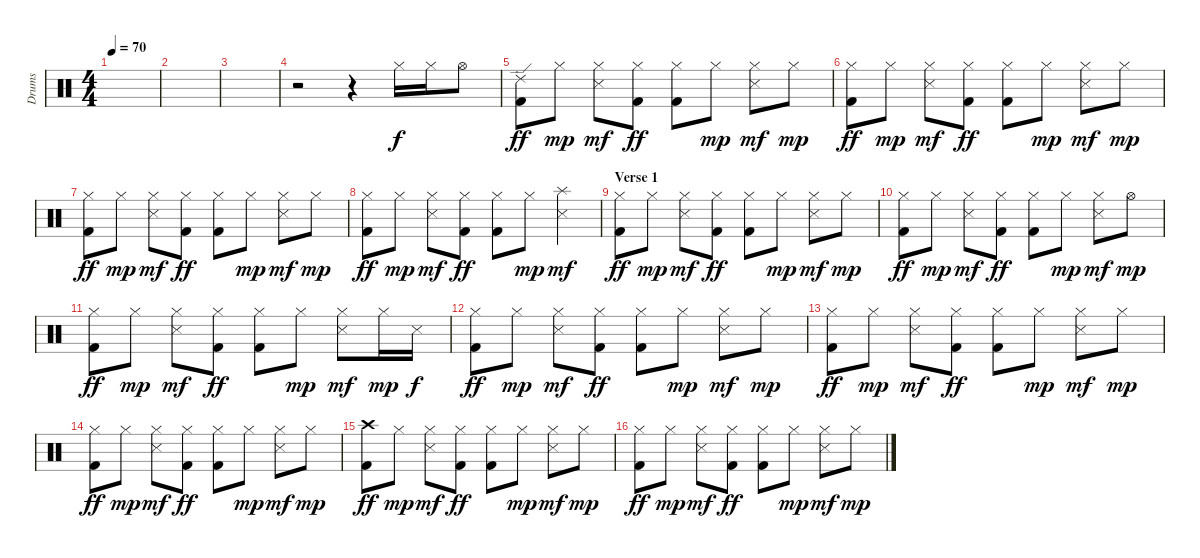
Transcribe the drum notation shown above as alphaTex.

\track ("Drums" "Drums") {instrument percussion}
\staff {score}
\articulation defaults
\ts (4 4)
\tempo 70
\clef neutral
\ks c
|
|
|
r.2 r.4 "Hi-Hat (closed)".16 "Hi-Hat (closed)".16 "Hi-Hat (open)".8 |
("Ride (edge) 2" "Kick (hit) 2").8{dy ff} "Hi-Hat (closed)".8{dy mp} ("Hi-Hat (closed)" "Snare (side stick) 3").8{dy mf} ("Hi-Hat (closed)" "Kick (hit) 2").8{dy ff} ("Hi-Hat (closed)" "Kick (hit) 2").8 "Hi-Hat (closed)".8{dy mp} ("Hi-Hat (closed)" "Snare (side stick) 3").8{dy mf} "Hi-Hat (closed)".8{dy mp} |
("Hi-Hat (closed)" "Kick (hit) 2").8{dy ff} "Hi-Hat (closed)".8{dy mp} ("Hi-Hat (closed)" "Snare (side stick) 3").8{dy mf} ("Hi-Hat (closed)" "Kick (hit) 2").8{dy ff} ("Hi-Hat (closed)" "Kick (hit) 2").8 "Hi-Hat (closed)".8{dy mp} ("Hi-Hat (closed)" "Snare (side stick) 3").8{dy mf} "Hi-Hat (closed)".8{dy mp} |
("Hi-Hat (closed)" "Kick (hit) 2").8{dy ff} "Hi-Hat (closed)".8{dy mp} ("Hi-Hat (closed)" "Snare (side stick) 3").8{dy mf} ("Hi-Hat (closed)" "Kick (hit) 2").8{dy ff} ("Hi-Hat (closed)" "Kick (hit) 2").8 "Hi-Hat (closed)".8{dy mp} ("Hi-Hat (closed)" "Snare (side stick) 3").8{dy mf} "Hi-Hat (closed)".8{dy mp} |
("Hi-Hat (closed)" "Kick (hit) 2").8{dy ff} "Hi-Hat (closed)".8{dy mp} ("Hi-Hat (closed)" "Snare (side stick) 3").8{dy mf} ("Hi-Hat (closed)" "Kick (hit) 2").8{dy ff} ("Hi-Hat (closed)" "Kick (hit) 2").8 "Hi-Hat (closed)".8{dy mp} ("Splash (hit)" "Snare (side stick) 3").4{dy mf} |
\section ("" "Verse 1")
("Hi-Hat (closed)" "Kick (hit) 2").8{dy ff} "Hi-Hat (closed)".8{dy mp} ("Hi-Hat (closed)" "Snare (side stick) 3").8{dy mf} ("Hi-Hat (closed)" "Kick (hit) 2").8{dy ff} ("Hi-Hat (closed)" "Kick (hit) 2").8 "Hi-Hat (closed)".8{dy mp} ("Hi-Hat (closed)" "Snare (side stick) 3").8{dy mf} "Hi-Hat (closed)".8{dy mp} |
("Hi-Hat (closed)" "Kick (hit) 2").8{dy ff} "Hi-Hat (closed)".8{dy mp} ("Hi-Hat (closed)" "Snare (side stick) 3").8{dy mf} ("Hi-Hat (closed)" "Kick (hit) 2").8{dy ff} ("Hi-Hat (closed)" "Kick (hit) 2").8 "Hi-Hat (closed)".8{dy mp} ("Hi-Hat (closed)" "Snare (side stick) 3").8{dy mf} "Hi-Hat (open)".8{dy mp} |
("Hi-Hat (closed)" "Kick (hit) 2").8{dy ff} "Hi-Hat (closed)".8{dy mp} ("Hi-Hat (closed)" "Snare (side stick) 3").8{dy mf} ("Hi-Hat (closed)" "Kick (hit) 2").8{dy ff} ("Hi-Hat (closed)" "Kick (hit) 2").8 "Hi-Hat (closed)".8{dy mp} ("Hi-Hat (closed)" "Snare (side stick) 3").8{dy mf} "Hi-Hat (closed)".16{dy mp} "Snare (side stick) 3".16{dy f} |
("Hi-Hat (closed)" "Kick (hit) 2").8{dy ff} "Hi-Hat (closed)".8{dy mp} ("Hi-Hat (closed)" "Snare (side stick) 3").8{dy mf} ("Hi-Hat (closed)" "Kick (hit) 2").8{dy ff} ("Hi-Hat (closed)" "Kick (hit) 2").8 "Hi-Hat (closed)".8{dy mp} ("Hi-Hat (closed)" "Snare (side stick) 3").8{dy mf} "Hi-Hat (closed)".8{dy mp} |
("Hi-Hat (closed)" "Kick (hit) 2").8{dy ff} "Hi-Hat (closed)".8{dy mp} ("Hi-Hat (closed)" "Snare (side stick) 3").8{dy mf} ("Hi-Hat (closed)" "Kick (hit) 2").8{dy ff} ("Hi-Hat (closed)" "Kick (hit) 2").8 "Hi-Hat (closed)".8{dy mp} ("Hi-Hat (closed)" "Snare (side stick) 3").8{dy mf} "Hi-Hat (closed)".8{dy mp} |
("Hi-Hat (closed)" "Kick (hit) 2").8{dy ff} "Hi-Hat (closed)".8{dy mp} ("Hi-Hat (closed)" "Snare (side stick) 3").8{dy mf} ("Hi-Hat (closed)" "Kick (hit) 2").8{dy ff} ("Hi-Hat (closed)" "Kick (hit) 2").8 "Hi-Hat (closed)".8{dy mp} ("Hi-Hat (closed)" "Snare (side stick) 3").8{dy mf} "Hi-Hat (closed)".8{dy mp} |
("Crash high (hit)" "Kick (hit) 2").8{dy ff} "Hi-Hat (closed)".8{dy mp} ("Hi-Hat (closed)" "Snare (side stick) 3").8{dy mf} ("Hi-Hat (closed)" "Kick (hit) 2").8{dy ff} ("Hi-Hat (closed)" "Kick (hit) 2").8 "Hi-Hat (closed)".8{dy mp} ("Hi-Hat (closed)" "Snare (side stick) 3").8{dy mf} "Hi-Hat (closed)".8{dy mp} |
("Hi-Hat (closed)" "Kick (hit) 2").8{dy ff} "Hi-Hat (closed)".8{dy mp} ("Hi-Hat (closed)" "Snare (side stick) 3").8{dy mf} ("Hi-Hat (closed)" "Kick (hit) 2").8{dy ff} ("Hi-Hat (closed)" "Kick (hit) 2").8 "Hi-Hat (closed)".8{dy mp} ("Hi-Hat (closed)" "Snare (side stick) 3").8{dy mf} "Hi-Hat (closed)".8{dy mp}
